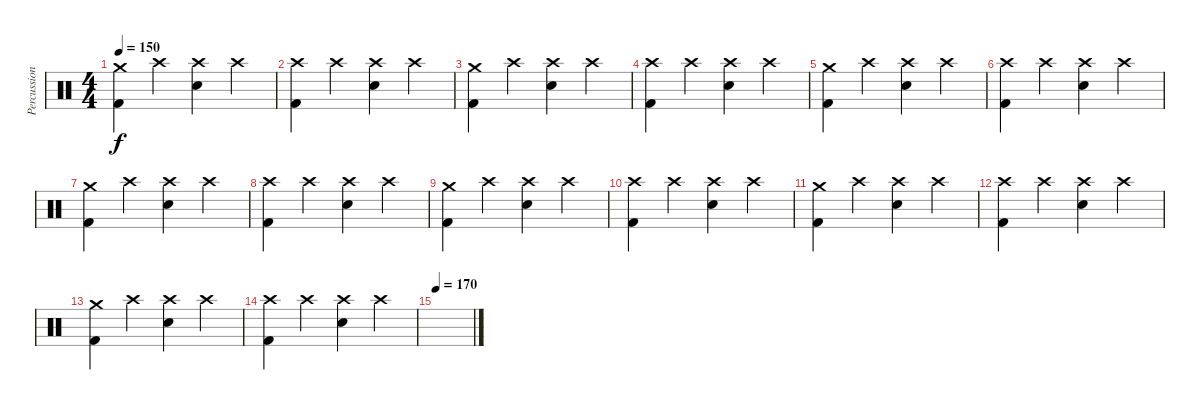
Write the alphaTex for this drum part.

\track ("Percussion" "Percussion") {instrument percussion}
\staff {score}
\articulation defaults
\ts (4 4)
\tempo 150
\clef neutral
\ks c
("Crash medium (hit)" "Kick (hit) 2").4{dy f} "Crash high (hit)".4 ("Crash high (hit)" "Electric Snare (hit)").4 "Crash high (hit)".4 |
("Crash high (hit)" "Kick (hit) 2").4 "Crash high (hit)".4 ("Crash high (hit)" "Electric Snare (hit)").4 "Crash high (hit)".4 |
("Crash medium (hit)" "Kick (hit) 2").4 "Crash high (hit)".4 ("Crash high (hit)" "Electric Snare (hit)").4 "Crash high (hit)".4 |
("Crash high (hit)" "Kick (hit) 2").4 "Crash high (hit)".4 ("Crash high (hit)" "Electric Snare (hit)").4 "Crash high (hit)".4 |
("Crash medium (hit)" "Kick (hit) 2").4 "Crash high (hit)".4 ("Crash high (hit)" "Electric Snare (hit)").4 "Crash high (hit)".4 |
("Crash high (hit)" "Kick (hit) 2").4 "Crash high (hit)".4 ("Crash high (hit)" "Electric Snare (hit)").4 "Crash high (hit)".4 |
("Crash medium (hit)" "Kick (hit) 2").4 "Crash high (hit)".4 ("Crash high (hit)" "Electric Snare (hit)").4 "Crash high (hit)".4 |
("Crash high (hit)" "Kick (hit) 2").4 "Crash high (hit)".4 ("Crash high (hit)" "Electric Snare (hit)").4 "Crash high (hit)".4 |
("Crash medium (hit)" "Kick (hit) 2").4 "Crash high (hit)".4 ("Crash high (hit)" "Electric Snare (hit)").4 "Crash high (hit)".4 |
("Crash high (hit)" "Kick (hit) 2").4 "Crash high (hit)".4 ("Crash high (hit)" "Electric Snare (hit)").4 "Crash high (hit)".4 |
("Crash medium (hit)" "Kick (hit) 2").4 "Crash high (hit)".4 ("Crash high (hit)" "Electric Snare (hit)").4 "Crash high (hit)".4 |
("Crash high (hit)" "Kick (hit) 2").4 "Crash high (hit)".4 ("Crash high (hit)" "Electric Snare (hit)").4 "Crash high (hit)".4 |
("Crash medium (hit)" "Kick (hit) 2").4 "Crash high (hit)".4 ("Crash high (hit)" "Electric Snare (hit)").4 "Crash high (hit)".4 |
("Crash high (hit)" "Kick (hit) 2").4 "Crash high (hit)".4 ("Crash high (hit)" "Electric Snare (hit)").4 "Crash high (hit)".4 |
\tempo 170
